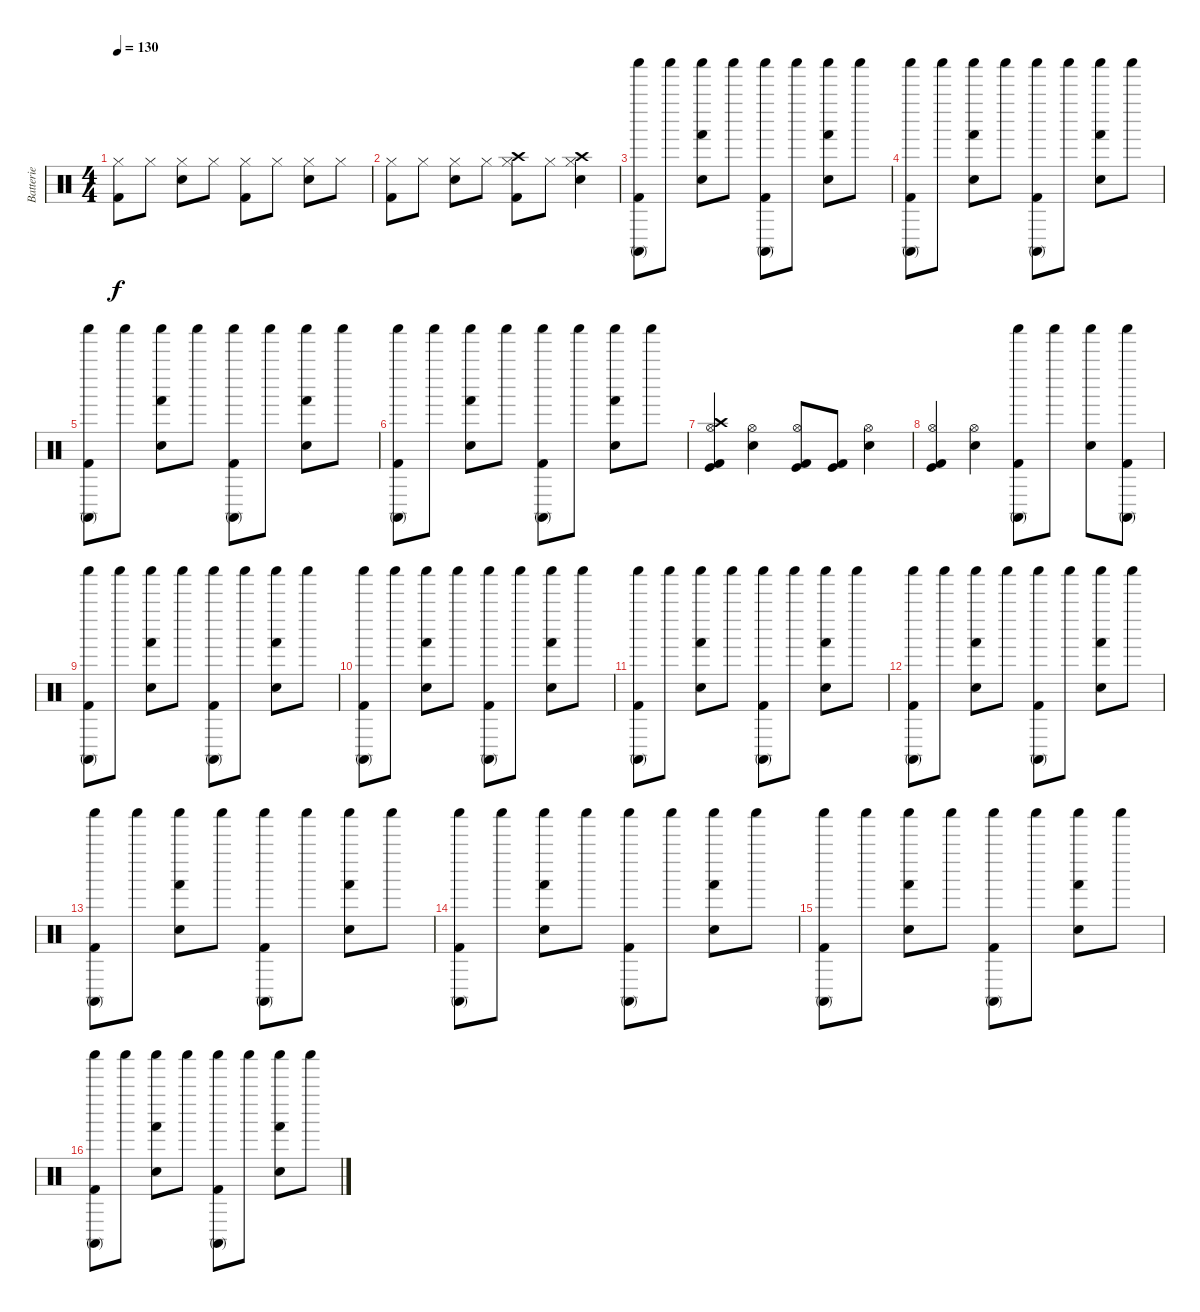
\track ("Batterie" "Batterie") {instrument percussion}
\staff {score}
\articulation defaults
\ts (4 4)
\tempo 130
\clef neutral
\ks c
("Hi-Hat (closed)" "Kick (hit) 2").8{dy f} "Hi-Hat (closed)".8 ("Hi-Hat (closed)" "Electric Snare (hit)").8 "Hi-Hat (closed)".8 ("Hi-Hat (closed)" "Kick (hit) 2").8 "Hi-Hat (closed)".8 ("Hi-Hat (closed)" "Electric Snare (hit)").8 "Hi-Hat (closed)".8 |
("Hi-Hat (closed)" "Kick (hit) 2").8 "Hi-Hat (closed)".8 ("Hi-Hat (closed)" "Electric Snare (hit)").8 "Hi-Hat (closed)".8 ("Hi-Hat (closed)" "Kick (hit) 2" "Crash high (hit)").8 "Hi-Hat (closed)".8 ("Hi-Hat (closed)" "Electric Snare (hit)" "Crash high (hit)").4 |
("Shaker (hit)" "Kick (hit) 2" "Conga high (mute)").8 "Shaker (hit)".8 ("Shaker (hit)" "Electric Snare (hit)" "Hand (hit)").8 "Shaker (hit)".8 ("Shaker (hit)" "Kick (hit) 2" "Conga high (mute)").8 "Shaker (hit)".8 ("Shaker (hit)" "Electric Snare (hit)" "Hand (hit)").8 "Shaker (hit)".8 |
("Shaker (hit)" "Kick (hit) 2" "Conga high (mute)").8 "Shaker (hit)".8 ("Shaker (hit)" "Electric Snare (hit)" "Hand (hit)").8 "Shaker (hit)".8 ("Shaker (hit)" "Kick (hit) 2" "Conga high (mute)").8 "Shaker (hit)".8 ("Shaker (hit)" "Electric Snare (hit)" "Hand (hit)").8 "Shaker (hit)".8 |
("Shaker (hit)" "Kick (hit) 2" "Conga high (mute)").8 "Shaker (hit)".8 ("Shaker (hit)" "Electric Snare (hit)" "Hand (hit)").8 "Shaker (hit)".8 ("Shaker (hit)" "Kick (hit) 2" "Conga high (mute)").8 "Shaker (hit)".8 ("Shaker (hit)" "Electric Snare (hit)" "Hand (hit)").8 "Shaker (hit)".8 |
("Shaker (hit)" "Kick (hit) 2" "Conga high (mute)").8 "Shaker (hit)".8 ("Shaker (hit)" "Electric Snare (hit)" "Hand (hit)").8 "Shaker (hit)".8 ("Shaker (hit)" "Kick (hit) 2" "Conga high (mute)").8 "Shaker (hit)".8 ("Shaker (hit)" "Electric Snare (hit)" "Hand (hit)").8 "Shaker (hit)".8 |
("Hi-Hat (open)" "Crash high (hit)" "Kick (hit) 2" "Kick (hit)").4 ("Hi-Hat (open)" "Electric Snare (hit)").4 ("Hi-Hat (open)" "Kick (hit)" "Kick (hit) 2").8 ("Kick (hit) 2" "Kick (hit)").8 ("Hi-Hat (open)" "Electric Snare (hit)").4 |
("Hi-Hat (open)" "Kick (hit) 2" "Kick (hit)").4 ("Hi-Hat (open)" "Electric Snare (hit)").4 ("Shaker (hit)" "Kick (hit) 2" "Conga high (mute)").8 "Shaker (hit)".8 ("Shaker (hit)" "Electric Snare (hit)").8 ("Shaker (hit)" "Kick (hit) 2" "Conga high (mute)").8 |
("Shaker (hit)" "Kick (hit) 2" "Conga high (mute)").8 "Shaker (hit)".8 ("Shaker (hit)" "Electric Snare (hit)" "Hand (hit)").8 "Shaker (hit)".8 ("Shaker (hit)" "Kick (hit) 2" "Conga high (mute)").8 "Shaker (hit)".8 ("Shaker (hit)" "Electric Snare (hit)" "Hand (hit)").8 "Shaker (hit)".8 |
("Shaker (hit)" "Kick (hit) 2" "Conga high (mute)").8 "Shaker (hit)".8 ("Shaker (hit)" "Electric Snare (hit)" "Hand (hit)").8 "Shaker (hit)".8 ("Shaker (hit)" "Kick (hit) 2" "Conga high (mute)").8 "Shaker (hit)".8 ("Shaker (hit)" "Electric Snare (hit)" "Hand (hit)").8 "Shaker (hit)".8 |
("Shaker (hit)" "Kick (hit) 2" "Conga high (mute)").8 "Shaker (hit)".8 ("Shaker (hit)" "Electric Snare (hit)" "Hand (hit)").8 "Shaker (hit)".8 ("Shaker (hit)" "Kick (hit) 2" "Conga high (mute)").8 "Shaker (hit)".8 ("Shaker (hit)" "Electric Snare (hit)" "Hand (hit)").8 "Shaker (hit)".8 |
("Shaker (hit)" "Kick (hit) 2" "Conga high (mute)").8 "Shaker (hit)".8 ("Shaker (hit)" "Electric Snare (hit)" "Hand (hit)").8 "Shaker (hit)".8 ("Shaker (hit)" "Kick (hit) 2" "Conga high (mute)").8 "Shaker (hit)".8 ("Shaker (hit)" "Electric Snare (hit)" "Hand (hit)").8 "Shaker (hit)".8 |
("Shaker (hit)" "Kick (hit) 2" "Conga high (mute)").8 "Shaker (hit)".8 ("Shaker (hit)" "Electric Snare (hit)" "Hand (hit)").8 "Shaker (hit)".8 ("Shaker (hit)" "Kick (hit) 2" "Conga high (mute)").8 "Shaker (hit)".8 ("Shaker (hit)" "Electric Snare (hit)" "Hand (hit)").8 "Shaker (hit)".8 |
("Shaker (hit)" "Kick (hit) 2" "Conga high (mute)").8 "Shaker (hit)".8 ("Shaker (hit)" "Electric Snare (hit)" "Hand (hit)").8 "Shaker (hit)".8 ("Shaker (hit)" "Kick (hit) 2" "Conga high (mute)").8 "Shaker (hit)".8 ("Shaker (hit)" "Electric Snare (hit)" "Hand (hit)").8 "Shaker (hit)".8 |
("Shaker (hit)" "Kick (hit) 2" "Conga high (mute)").8 "Shaker (hit)".8 ("Shaker (hit)" "Electric Snare (hit)" "Hand (hit)").8 "Shaker (hit)".8 ("Shaker (hit)" "Kick (hit) 2" "Conga high (mute)").8 "Shaker (hit)".8 ("Shaker (hit)" "Electric Snare (hit)" "Hand (hit)").8 "Shaker (hit)".8 |
("Shaker (hit)" "Kick (hit) 2" "Conga high (mute)").8 "Shaker (hit)".8 ("Shaker (hit)" "Electric Snare (hit)" "Hand (hit)").8 "Shaker (hit)".8 ("Shaker (hit)" "Kick (hit) 2" "Conga high (mute)").8 "Shaker (hit)".8 ("Shaker (hit)" "Electric Snare (hit)" "Hand (hit)").8 "Shaker (hit)".8
